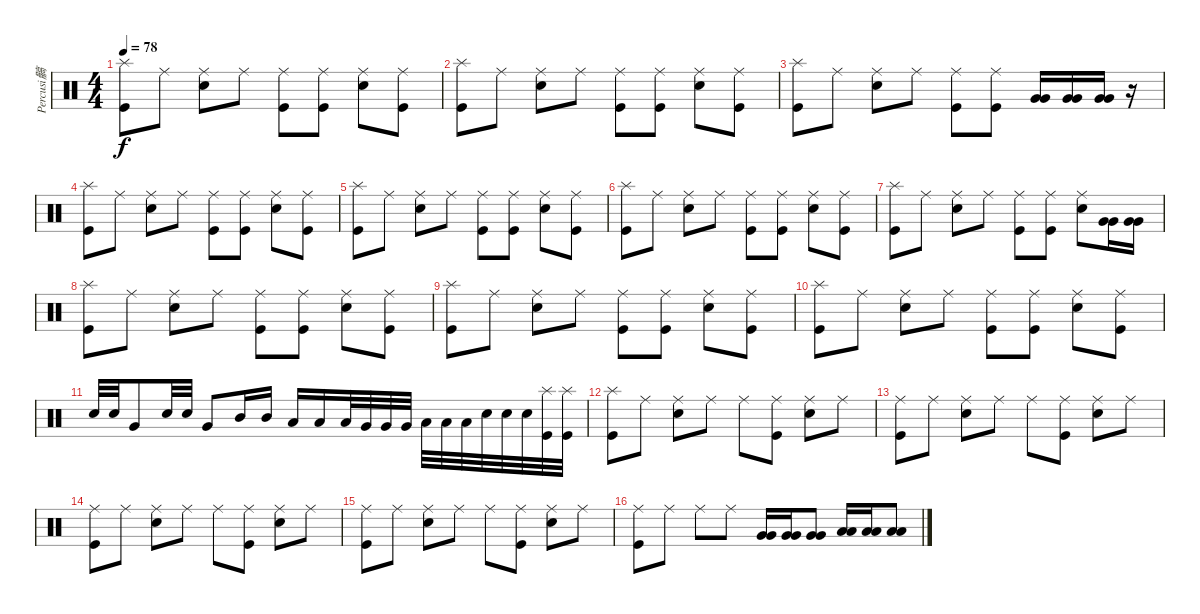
\track ("Percusi髇" "Percusi髇") {instrument percussion}
\staff {score}
\articulation defaults
\ts (4 4)
\tempo 78
\clef neutral
\ks c
("Splash (hit)" "Kick (hit)").8{dy f} "Ride (middle)".8 ("Ride (middle)" "Snare (hit) 2").8 "Ride (middle)".8 ("Ride (middle)" "Kick (hit)").8 ("Ride (middle)" "Kick (hit)").8 ("Ride (middle)" "Snare (hit) 2").8 ("Ride (middle)" "Kick (hit)").8 |
("Splash (hit)" "Kick (hit)").8 "Ride (middle)".8 ("Ride (middle)" "Snare (hit) 2").8 "Ride (middle)".8 ("Ride (middle)" "Kick (hit)").8 ("Ride (middle)" "Kick (hit)").8 ("Ride (middle)" "Snare (hit) 2").8 ("Ride (middle)" "Kick (hit)").8 |
("Splash (hit)" "Kick (hit)").8 "Ride (middle)".8 ("Ride (middle)" "Snare (hit) 2").8 "Ride (middle)".8 ("Ride (middle)" "Kick (hit)").8 ("Ride (middle)" "Kick (hit)").8 ("Very Low Tom (hit)" "Very Low Tom (hit)").16 ("Very Low Tom (hit)" "Very Low Tom (hit)").16 ("Very Low Tom (hit)" "Very Low Tom (hit)").16 r.16 |
("Splash (hit)" "Kick (hit)").8 "Ride (middle)".8 ("Ride (middle)" "Snare (hit) 2").8 "Ride (middle)".8 ("Ride (middle)" "Kick (hit)").8 ("Ride (middle)" "Kick (hit)").8 ("Ride (middle)" "Snare (hit) 2").8 ("Ride (middle)" "Kick (hit)").8 |
("Splash (hit)" "Kick (hit)").8 "Ride (middle)".8 ("Ride (middle)" "Snare (hit) 2").8 "Ride (middle)".8 ("Ride (middle)" "Kick (hit)").8 ("Ride (middle)" "Kick (hit)").8 ("Ride (middle)" "Snare (hit) 2").8 ("Ride (middle)" "Kick (hit)").8 |
("Splash (hit)" "Kick (hit)").8 "Ride (middle)".8 ("Ride (middle)" "Snare (hit) 2").8 "Ride (middle)".8 ("Ride (middle)" "Kick (hit)").8 ("Ride (middle)" "Kick (hit)").8 ("Ride (middle)" "Snare (hit) 2").8 ("Ride (middle)" "Kick (hit)").8 |
("Splash (hit)" "Kick (hit)").8 "Ride (middle)".8 ("Ride (middle)" "Snare (hit) 2").8 "Ride (middle)".8 ("Ride (middle)" "Kick (hit)").8 ("Ride (middle)" "Kick (hit)").8 ("Ride (middle)" "Snare (hit) 2").8 ("Very Low Tom (hit)" "Very Low Tom (hit)").16 ("Very Low Tom (hit)" "Very Low Tom (hit)").16 |
("Splash (hit)" "Kick (hit)").8 "Ride (middle)".8 ("Ride (middle)" "Snare (hit) 2").8 "Ride (middle)".8 ("Ride (middle)" "Kick (hit)").8 ("Ride (middle)" "Kick (hit)").8 ("Ride (middle)" "Snare (hit) 2").8 ("Ride (middle)" "Kick (hit)").8 |
("Splash (hit)" "Kick (hit)").8 "Ride (middle)".8 ("Ride (middle)" "Snare (hit) 2").8 "Ride (middle)".8 ("Ride (middle)" "Kick (hit)").8 ("Ride (middle)" "Kick (hit)").8 ("Ride (middle)" "Snare (hit) 2").8 ("Ride (middle)" "Kick (hit)").8 |
("Splash (hit)" "Kick (hit)").8 "Ride (middle)".8 ("Ride (middle)" "Snare (hit) 2").8 "Ride (middle)".8 ("Ride (middle)" "Kick (hit)").8 ("Ride (middle)" "Kick (hit)").8 ("Ride (middle)" "Snare (hit) 2").8 ("Ride (middle)" "Kick (hit)").8 |
"Snare (hit) 2".32 "Snare (hit) 2".32 "Very Low Tom (hit)".8 "Snare (hit) 2".32 "Snare (hit) 2".32 "Very Low Tom (hit)".8 "Mid Tom (hit)".16 "Mid Tom (hit)".16 "Low Tom (hit)".16 "Low Tom (hit)".16 "Low Tom (hit)".32 "Very Low Tom (hit)".32 "Very Low Tom (hit)".32 "Very Low Tom (hit)".32 "Low Floor Tom (hit)".32 "Low Floor Tom (hit)".32 "Low Floor Tom (hit)".32 "Snare (hit) 2".32 "Snare (hit) 2".32 "Snare (hit) 2".32 ("Splash (hit)" "Kick (hit)").32 ("Splash (hit)" "Kick (hit)").32 |
("Splash (hit)" "Kick (hit)").8 "Ride (middle)".8 ("Ride (middle)" "Snare (hit) 2").8 "Ride (middle)".8 "Ride (middle)".8 ("Ride (middle)" "Kick (hit)").8 ("Ride (middle)" "Snare (hit) 2").8 "Ride (middle)".8 |
("Ride (middle)" "Kick (hit)").8 "Ride (middle)".8 ("Ride (middle)" "Snare (hit) 2").8 "Ride (middle)".8 "Ride (middle)".8 ("Ride (middle)" "Kick (hit)").8 ("Ride (middle)" "Snare (hit) 2").8 "Ride (middle)".8 |
("Ride (middle)" "Kick (hit)").8 "Ride (middle)".8 ("Ride (middle)" "Snare (hit) 2").8 "Ride (middle)".8 "Ride (middle)".8 ("Ride (middle)" "Kick (hit)").8 ("Ride (middle)" "Snare (hit) 2").8 "Ride (middle)".8 |
("Ride (middle)" "Kick (hit)").8 "Ride (middle)".8 ("Ride (middle)" "Snare (hit) 2").8 "Ride (middle)".8 "Ride (middle)".8 ("Ride (middle)" "Kick (hit)").8 ("Ride (middle)" "Snare (hit) 2").8 "Ride (middle)".8 |
("Ride (middle)" "Kick (hit)").8 "Ride (middle)".8 "Ride (middle)".8 "Ride (middle)".8 ("Very Low Tom (hit)" "Very Low Tom (hit)").16 ("Very Low Tom (hit)" "Very Low Tom (hit)").16 ("Very Low Tom (hit)" "Very Low Tom (hit)").8 ("Low Floor Tom (hit)" "Low Floor Tom (hit)").16 ("Low Floor Tom (hit)" "Low Floor Tom (hit)").16 ("Low Floor Tom (hit)" "Low Floor Tom (hit)").8
